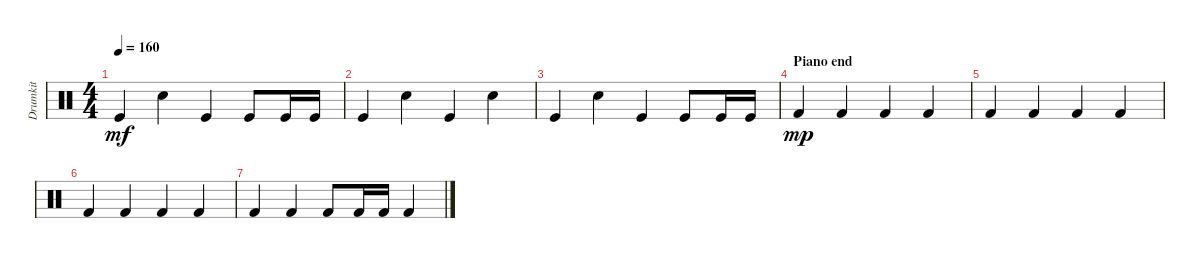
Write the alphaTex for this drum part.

\track ("Drumkit" "Drumkit") {instrument percussion}
\staff {score}
\articulation defaults
\ts (4 4)
\tempo 160
\clef neutral
\ks c "Kick (hit)".4{dy mf} "Hand Clap (hit)".4 "Kick (hit)".4 "Kick (hit)".8 "Kick (hit)".16 "Kick (hit)".16
|
"Kick (hit)".4 "Hand Clap (hit)".4 "Kick (hit)".4 "Hand Clap (hit)".4 |
"Kick (hit)".4 "Hand Clap (hit)".4 "Kick (hit)".4 "Kick (hit)".8 "Kick (hit)".16 "Kick (hit)".16 |
\section ("" "Piano end")
"Kick (hit) 2".4{dy mp} "Kick (hit) 2".4 "Kick (hit) 2".4 "Kick (hit) 2".4 |
"Kick (hit) 2".4 "Kick (hit) 2".4 "Kick (hit) 2".4 "Kick (hit) 2".4 |
"Kick (hit) 2".4 "Kick (hit) 2".4 "Kick (hit) 2".4 "Kick (hit) 2".4 |
"Kick (hit) 2".4 "Kick (hit) 2".4 "Kick (hit) 2".8 "Kick (hit) 2".16 "Kick (hit) 2".16 "Kick (hit) 2".4
